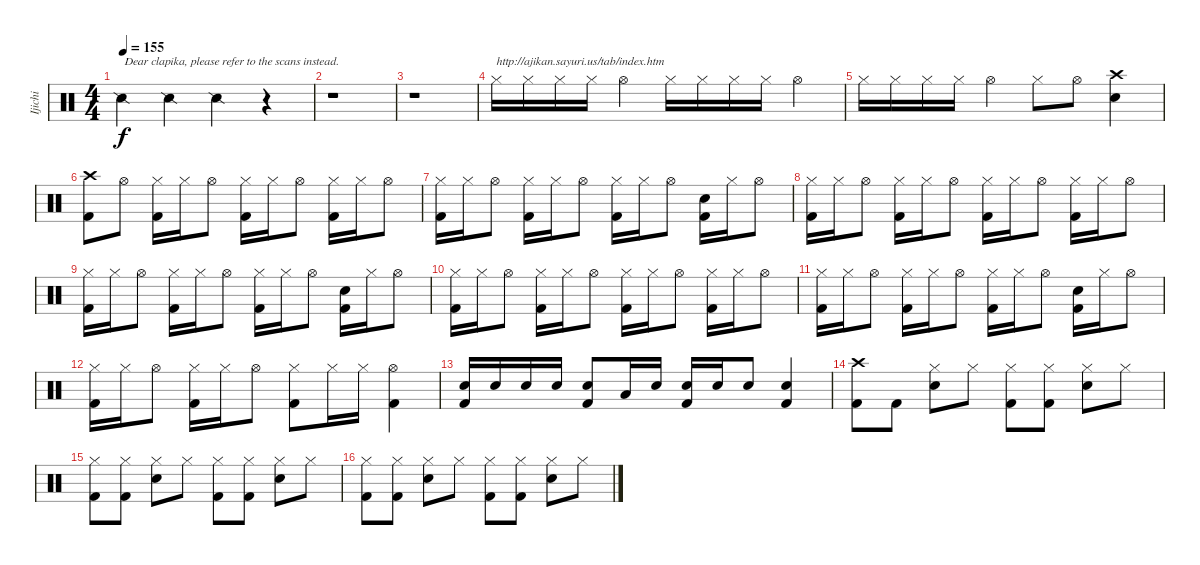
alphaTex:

\track ("Ijichi" "Ijichi") {instrument percussion}
\staff {score}
\articulation defaults
\ts (4 4)
\tempo 155
\clef neutral
\ks c "Snare (side stick) 2".4{txt "Dear clapika, please refer to the scans instead." dy f} "Snare (side stick) 2".4 "Snare (side stick) 2".4
r.4 |
r.1 |
r.1 |
"Hi-Hat (closed)".16{txt "http://ajikan.sayuri.us/tab/index.htm"} "Hi-Hat (closed)".16 "Hi-Hat (closed)".16 "Hi-Hat (closed)".16 "Hi-Hat (open)".4 "Hi-Hat (closed)".16 "Hi-Hat (closed)".16 "Hi-Hat (closed)".16 "Hi-Hat (closed)".16 "Hi-Hat (open)".4 |
"Hi-Hat (closed)".16 "Hi-Hat (closed)".16 "Hi-Hat (closed)".16 "Hi-Hat (closed)".16 "Hi-Hat (open)".4 "Hi-Hat (closed)".8 "Hi-Hat (open)".8 ("Crash high (hit)" "Snare (hit) 2").4 |
("Crash high (hit)" "Kick (hit) 2").8 "Hi-Hat (open)".8 ("Hi-Hat (closed)" "Kick (hit) 2").16 "Hi-Hat (closed)".16 "Hi-Hat (open)".8 ("Hi-Hat (closed)" "Kick (hit) 2").16 "Hi-Hat (closed)".16 "Hi-Hat (open)".8 ("Hi-Hat (closed)" "Kick (hit) 2").16 "Hi-Hat (closed)".16 "Hi-Hat (open)".8 |
("Hi-Hat (closed)" "Kick (hit) 2").16 "Hi-Hat (closed)".16 "Hi-Hat (open)".8 ("Hi-Hat (closed)" "Kick (hit) 2").16 "Hi-Hat (closed)".16 "Hi-Hat (open)".8 ("Hi-Hat (closed)" "Kick (hit) 2").16 "Hi-Hat (closed)".16 "Hi-Hat (open)".8 ("Snare (hit) 2" "Kick (hit) 2").16 "Hi-Hat (closed)".16 "Hi-Hat (open)".8 |
("Hi-Hat (closed)" "Kick (hit) 2").16 "Hi-Hat (closed)".16 "Hi-Hat (open)".8 ("Hi-Hat (closed)" "Kick (hit) 2").16 "Hi-Hat (closed)".16 "Hi-Hat (open)".8 ("Hi-Hat (closed)" "Kick (hit) 2").16 "Hi-Hat (closed)".16 "Hi-Hat (open)".8 ("Hi-Hat (closed)" "Kick (hit) 2").16 "Hi-Hat (closed)".16 "Hi-Hat (open)".8 |
("Hi-Hat (closed)" "Kick (hit) 2").16 "Hi-Hat (closed)".16 "Hi-Hat (open)".8 ("Hi-Hat (closed)" "Kick (hit) 2").16 "Hi-Hat (closed)".16 "Hi-Hat (open)".8 ("Hi-Hat (closed)" "Kick (hit) 2").16 "Hi-Hat (closed)".16 "Hi-Hat (open)".8 ("Snare (hit) 2" "Kick (hit) 2").16 "Hi-Hat (closed)".16 "Hi-Hat (open)".8 |
("Hi-Hat (closed)" "Kick (hit) 2").16 "Hi-Hat (closed)".16 "Hi-Hat (open)".8 ("Hi-Hat (closed)" "Kick (hit) 2").16 "Hi-Hat (closed)".16 "Hi-Hat (open)".8 ("Hi-Hat (closed)" "Kick (hit) 2").16 "Hi-Hat (closed)".16 "Hi-Hat (open)".8 ("Hi-Hat (closed)" "Kick (hit) 2").16 "Hi-Hat (closed)".16 "Hi-Hat (open)".8 |
("Hi-Hat (closed)" "Kick (hit) 2").16 "Hi-Hat (closed)".16 "Hi-Hat (open)".8 ("Hi-Hat (closed)" "Kick (hit) 2").16 "Hi-Hat (closed)".16 "Hi-Hat (open)".8 ("Hi-Hat (closed)" "Kick (hit) 2").16 "Hi-Hat (closed)".16 "Hi-Hat (open)".8 ("Snare (hit) 2" "Kick (hit) 2").16 "Hi-Hat (closed)".16 "Hi-Hat (open)".8 |
("Hi-Hat (closed)" "Kick (hit) 2").16 "Hi-Hat (closed)".16 "Hi-Hat (open)".8 ("Hi-Hat (closed)" "Kick (hit) 2").16 "Hi-Hat (closed)".16 "Hi-Hat (open)".8 ("Hi-Hat (closed)" "Kick (hit) 2").8 "Hi-Hat (closed)".16 "Hi-Hat (closed)".16 ("Hi-Hat (open)" "Kick (hit) 2").4 |
("Snare (hit) 2" "Kick (hit) 2").16 "Snare (hit) 2".16 "Snare (hit) 2".16 "Snare (hit) 2".16 ("Snare (hit) 2" "Kick (hit) 2").8 "Low Tom (hit)".16 "Snare (hit) 2".16 ("Snare (hit) 2" "Kick (hit) 2").16 "Snare (hit) 2".16 "Snare (hit) 2".8 ("Snare (hit) 2" "Kick (hit) 2").4 |
("Crash high (hit)" "Kick (hit) 2").8 "Kick (hit) 2".8 ("Hi-Hat (closed)" "Snare (hit) 2").8 "Hi-Hat (closed)".8 ("Hi-Hat (closed)" "Kick (hit) 2").8 ("Hi-Hat (closed)" "Kick (hit) 2").8 ("Hi-Hat (closed)" "Snare (hit) 2").8 "Hi-Hat (closed)".8 |
("Hi-Hat (closed)" "Kick (hit) 2").8 ("Hi-Hat (closed)" "Kick (hit) 2").8 ("Hi-Hat (closed)" "Snare (hit) 2").8 "Hi-Hat (closed)".8 ("Hi-Hat (closed)" "Kick (hit) 2").8 ("Hi-Hat (closed)" "Kick (hit) 2").8 ("Hi-Hat (closed)" "Snare (hit) 2").8 "Hi-Hat (closed)".8 |
("Hi-Hat (closed)" "Kick (hit) 2").8 ("Hi-Hat (closed)" "Kick (hit) 2").8 ("Hi-Hat (closed)" "Snare (hit) 2").8 "Hi-Hat (closed)".8 ("Hi-Hat (closed)" "Kick (hit) 2").8 ("Hi-Hat (closed)" "Kick (hit) 2").8 ("Hi-Hat (closed)" "Snare (hit) 2").8 "Hi-Hat (closed)".8
